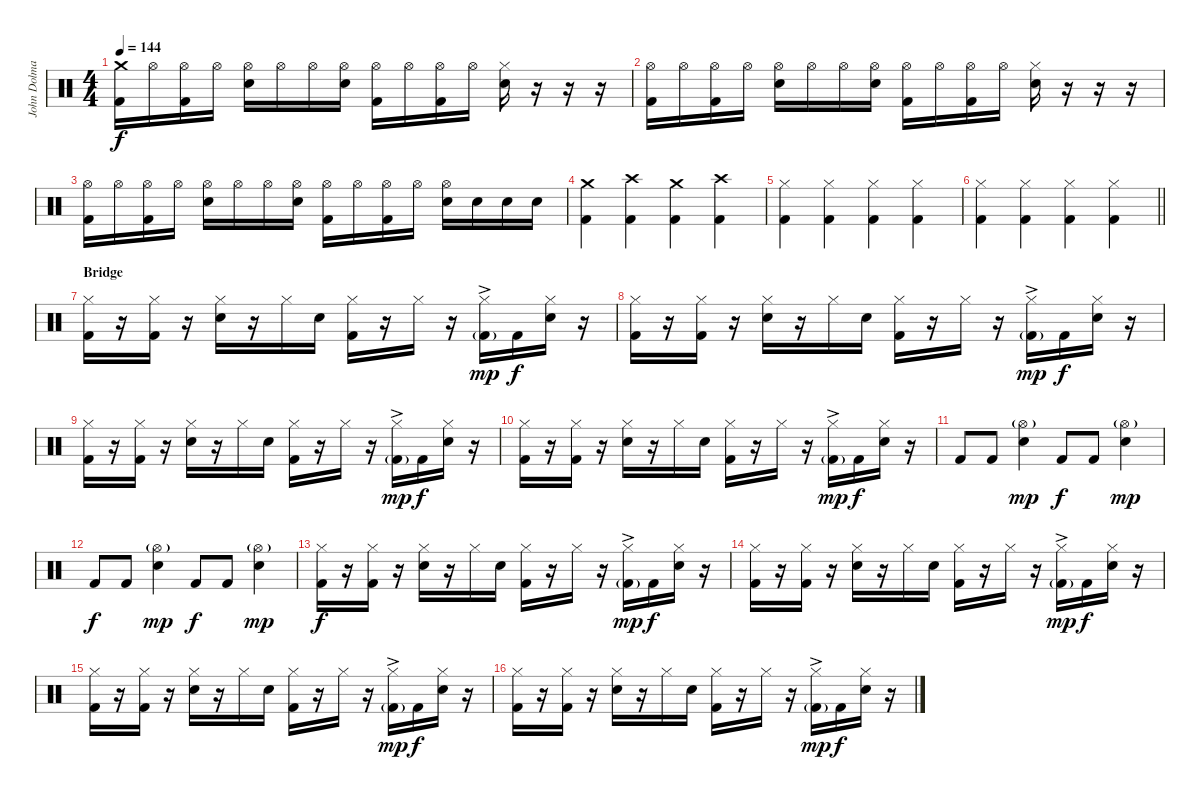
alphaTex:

\track ("John Dolmayan" "John Dolma") {instrument percussion}
\staff {score}
\articulation defaults
\ts (4 4)
\tempo 144
\clef neutral
\ks c
("Crash medium (hit)" "Kick (hit) 2").16{dy f} "Hi-Hat (open)".16 ("Hi-Hat (open)" "Kick (hit) 2").16 "Hi-Hat (open)".16 ("Hi-Hat (open)" "Electric Snare (hit)").16 "Hi-Hat (open)".16 "Hi-Hat (open)".16 ("Hi-Hat (open)" "Electric Snare (hit)").16 ("Hi-Hat (open)" "Kick (hit) 2").16 "Hi-Hat (open)".16 ("Hi-Hat (open)" "Kick (hit) 2").16 "Hi-Hat (open)".16 ("Hi-Hat (closed)" "Electric Snare (hit)").16 r.16 r.16 r.16 |
("Hi-Hat (open)" "Kick (hit) 2").16 "Hi-Hat (open)".16 ("Hi-Hat (open)" "Kick (hit) 2").16 "Hi-Hat (open)".16 ("Hi-Hat (open)" "Electric Snare (hit)").16 "Hi-Hat (open)".16 "Hi-Hat (open)".16 ("Hi-Hat (open)" "Electric Snare (hit)").16 ("Hi-Hat (open)" "Kick (hit) 2").16 "Hi-Hat (open)".16 ("Hi-Hat (open)" "Kick (hit) 2").16 "Hi-Hat (open)".16 ("Hi-Hat (closed)" "Electric Snare (hit)").16 r.16 r.16 r.16 |
("Hi-Hat (open)" "Kick (hit) 2").16 "Hi-Hat (open)".16 ("Hi-Hat (open)" "Kick (hit) 2").16 "Hi-Hat (open)".16 ("Hi-Hat (open)" "Electric Snare (hit)").16 "Hi-Hat (open)".16 "Hi-Hat (open)".16 ("Hi-Hat (open)" "Electric Snare (hit)").16 ("Hi-Hat (open)" "Kick (hit) 2").16 "Hi-Hat (open)".16 ("Hi-Hat (open)" "Kick (hit) 2").16 "Hi-Hat (open)".16 ("Hi-Hat (open)" "Electric Snare (hit)").16 "Electric Snare (hit)".16 "Electric Snare (hit)".16 "Electric Snare (hit)".16 |
("Crash medium (hit)" "Kick (hit) 2").4 ("Crash high (hit)" "Kick (hit) 2").4 ("Crash medium (hit)" "Kick (hit) 2").4 ("Crash high (hit)" "Kick (hit) 2").4 |
("Hi-Hat (closed)" "Kick (hit) 2").4 ("Hi-Hat (closed)" "Kick (hit) 2").4 ("Hi-Hat (closed)" "Kick (hit) 2").4 ("Hi-Hat (closed)" "Kick (hit) 2").4 |
\barLineRight lightlight
("Hi-Hat (closed)" "Kick (hit) 2").4 ("Hi-Hat (closed)" "Kick (hit) 2").4 ("Hi-Hat (closed)" "Kick (hit) 2").4 ("Hi-Hat (closed)" "Kick (hit) 2").4 |
\section ("" "Bridge")
("Hi-Hat (closed)" "Kick (hit) 2").16 r.16 ("Hi-Hat (closed)" "Kick (hit) 2").16 r.16 ("Hi-Hat (closed)" "Electric Snare (hit)").16 r.16 "Hi-Hat (closed)".16 "Electric Snare (hit)".16 ("Hi-Hat (closed)" "Kick (hit) 2").16 r.16 "Hi-Hat (closed)".16 r.16 ("Hi-Hat (closed)"{ac} "Kick (hit) 2"{g}).16{dy mp} "Kick (hit) 2".16{dy f} ("Hi-Hat (closed)" "Electric Snare (hit)").16 r.16 |
("Hi-Hat (closed)" "Kick (hit) 2").16 r.16 ("Hi-Hat (closed)" "Kick (hit) 2").16 r.16 ("Hi-Hat (closed)" "Electric Snare (hit)").16 r.16 "Hi-Hat (closed)".16 "Electric Snare (hit)".16 ("Hi-Hat (closed)" "Kick (hit) 2").16 r.16 "Hi-Hat (closed)".16 r.16 ("Hi-Hat (closed)"{ac} "Kick (hit) 2"{g}).16{dy mp} "Kick (hit) 2".16{dy f} ("Hi-Hat (closed)" "Electric Snare (hit)").16 r.16 |
("Hi-Hat (closed)" "Kick (hit) 2").16 r.16 ("Hi-Hat (closed)" "Kick (hit) 2").16 r.16 ("Hi-Hat (closed)" "Electric Snare (hit)").16 r.16 "Hi-Hat (closed)".16 "Electric Snare (hit)".16 ("Hi-Hat (closed)" "Kick (hit) 2").16 r.16 "Hi-Hat (closed)".16 r.16 ("Hi-Hat (closed)"{ac} "Kick (hit) 2"{g}).16{dy mp} "Kick (hit) 2".16{dy f} ("Hi-Hat (closed)" "Electric Snare (hit)").16 r.16 |
("Hi-Hat (closed)" "Kick (hit) 2").16 r.16 ("Hi-Hat (closed)" "Kick (hit) 2").16 r.16 ("Hi-Hat (closed)" "Electric Snare (hit)").16 r.16 "Hi-Hat (closed)".16 "Electric Snare (hit)".16 ("Hi-Hat (closed)" "Kick (hit) 2").16 r.16 "Hi-Hat (closed)".16 r.16 ("Hi-Hat (closed)"{ac} "Kick (hit) 2"{g}).16{dy mp} "Kick (hit) 2".16{dy f} ("Hi-Hat (closed)" "Electric Snare (hit)").16 r.16 |
"Kick (hit) 2".8 "Kick (hit) 2".8 ("Hi-Hat (open)"{g} "Electric Snare (hit)").4{dy mp} "Kick (hit) 2".8{dy f} "Kick (hit) 2".8 ("Hi-Hat (open)"{g} "Electric Snare (hit)").4{dy mp} |
"Kick (hit) 2".8{dy f} "Kick (hit) 2".8 ("Hi-Hat (open)"{g} "Electric Snare (hit)").4{dy mp} "Kick (hit) 2".8{dy f} "Kick (hit) 2".8 ("Hi-Hat (open)"{g} "Electric Snare (hit)").4{dy mp} |
("Hi-Hat (closed)" "Kick (hit) 2").16{dy f} r.16 ("Hi-Hat (closed)" "Kick (hit) 2").16 r.16 ("Hi-Hat (closed)" "Electric Snare (hit)").16 r.16 "Hi-Hat (closed)".16 "Electric Snare (hit)".16 ("Hi-Hat (closed)" "Kick (hit) 2").16 r.16 "Hi-Hat (closed)".16 r.16 ("Hi-Hat (closed)"{ac} "Kick (hit) 2"{g}).16{dy mp} "Kick (hit) 2".16{dy f} ("Hi-Hat (closed)" "Electric Snare (hit)").16 r.16 |
("Hi-Hat (closed)" "Kick (hit) 2").16 r.16 ("Hi-Hat (closed)" "Kick (hit) 2").16 r.16 ("Hi-Hat (closed)" "Electric Snare (hit)").16 r.16 "Hi-Hat (closed)".16 "Electric Snare (hit)".16 ("Hi-Hat (closed)" "Kick (hit) 2").16 r.16 "Hi-Hat (closed)".16 r.16 ("Hi-Hat (closed)"{ac} "Kick (hit) 2"{g}).16{dy mp} "Kick (hit) 2".16{dy f} ("Hi-Hat (closed)" "Electric Snare (hit)").16 r.16 |
("Hi-Hat (closed)" "Kick (hit) 2").16 r.16 ("Hi-Hat (closed)" "Kick (hit) 2").16 r.16 ("Hi-Hat (closed)" "Electric Snare (hit)").16 r.16 "Hi-Hat (closed)".16 "Electric Snare (hit)".16 ("Hi-Hat (closed)" "Kick (hit) 2").16 r.16 "Hi-Hat (closed)".16 r.16 ("Hi-Hat (closed)"{ac} "Kick (hit) 2"{g}).16{dy mp} "Kick (hit) 2".16{dy f} ("Hi-Hat (closed)" "Electric Snare (hit)").16 r.16 |
("Hi-Hat (closed)" "Kick (hit) 2").16 r.16 ("Hi-Hat (closed)" "Kick (hit) 2").16 r.16 ("Hi-Hat (closed)" "Electric Snare (hit)").16 r.16 "Hi-Hat (closed)".16 "Electric Snare (hit)".16 ("Hi-Hat (closed)" "Kick (hit) 2").16 r.16 "Hi-Hat (closed)".16 r.16 ("Hi-Hat (closed)"{ac} "Kick (hit) 2"{g}).16{dy mp} "Kick (hit) 2".16{dy f} ("Hi-Hat (closed)" "Electric Snare (hit)").16 r.16
